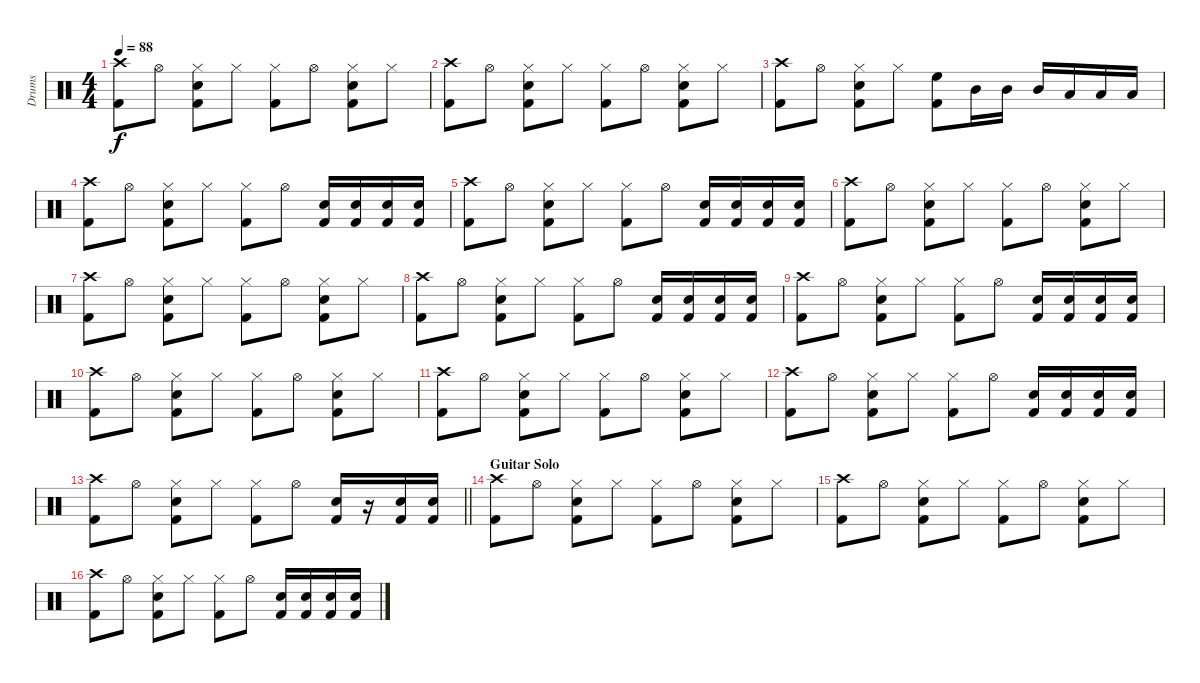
\track ("Drums" "Drums") {instrument percussion}
\staff {score}
\articulation defaults
\ts (4 4)
\tempo 88
\clef neutral
\ks c
("Crash high (hit)" "Kick (hit) 2").8{dy f} "Hi-Hat (open)".8 ("Hi-Hat (closed)" "Snare (hit) 2" "Kick (hit) 2").8 "Hi-Hat (closed)".8 ("Hi-Hat (closed)" "Kick (hit) 2").8 "Hi-Hat (open)".8 ("Hi-Hat (closed)" "Snare (hit) 2" "Kick (hit) 2").8 "Hi-Hat (closed)".8 |
("Crash high (hit)" "Kick (hit) 2").8 "Hi-Hat (open)".8 ("Hi-Hat (closed)" "Snare (hit) 2" "Kick (hit) 2").8 "Hi-Hat (closed)".8 ("Hi-Hat (closed)" "Kick (hit) 2").8 "Hi-Hat (open)".8 ("Hi-Hat (closed)" "Snare (hit) 2" "Kick (hit) 2").8 "Hi-Hat (closed)".8 |
("Crash high (hit)" "Kick (hit) 2").8 "Hi-Hat (open)".8 ("Hi-Hat (closed)" "Snare (hit) 2" "Kick (hit) 2").8 "Hi-Hat (closed)".8 ("High Floor Tom (hit)" "Kick (hit) 2").8 "Mid Tom (hit)".16 "Mid Tom (hit)".16 "Mid Tom (hit)".16 "Low Tom (hit)".16 "Low Tom (hit)".16 "Low Tom (hit)".16 |
("Crash high (hit)" "Kick (hit) 2").8 "Hi-Hat (open)".8 ("Hi-Hat (closed)" "Snare (hit) 2" "Kick (hit) 2").8 "Hi-Hat (closed)".8 ("Hi-Hat (closed)" "Kick (hit) 2").8 "Hi-Hat (open)".8 ("Snare (hit) 2" "Kick (hit) 2").16 ("Snare (hit) 2" "Kick (hit) 2").16 ("Snare (hit) 2" "Kick (hit) 2").16 ("Snare (hit) 2" "Kick (hit) 2").16 |
("Crash high (hit)" "Kick (hit) 2").8 "Hi-Hat (open)".8 ("Hi-Hat (closed)" "Snare (hit) 2" "Kick (hit) 2").8 "Hi-Hat (closed)".8 ("Hi-Hat (closed)" "Kick (hit) 2").8 "Hi-Hat (open)".8 ("Snare (hit) 2" "Kick (hit) 2").16 ("Snare (hit) 2" "Kick (hit) 2").16 ("Snare (hit) 2" "Kick (hit) 2").16 ("Snare (hit) 2" "Kick (hit) 2").16 |
("Crash high (hit)" "Kick (hit) 2").8 "Hi-Hat (open)".8 ("Hi-Hat (closed)" "Snare (hit) 2" "Kick (hit) 2").8 "Hi-Hat (closed)".8 ("Hi-Hat (closed)" "Kick (hit) 2").8 "Hi-Hat (open)".8 ("Hi-Hat (closed)" "Snare (hit) 2" "Kick (hit) 2").8 "Hi-Hat (closed)".8 |
("Crash high (hit)" "Kick (hit) 2").8 "Hi-Hat (open)".8 ("Hi-Hat (closed)" "Snare (hit) 2" "Kick (hit) 2").8 "Hi-Hat (closed)".8 ("Hi-Hat (closed)" "Kick (hit) 2").8 "Hi-Hat (open)".8 ("Hi-Hat (closed)" "Snare (hit) 2" "Kick (hit) 2").8 "Hi-Hat (closed)".8 |
("Crash high (hit)" "Kick (hit) 2").8 "Hi-Hat (open)".8 ("Hi-Hat (closed)" "Snare (hit) 2" "Kick (hit) 2").8 "Hi-Hat (closed)".8 ("Hi-Hat (closed)" "Kick (hit) 2").8 "Hi-Hat (open)".8 ("Snare (hit) 2" "Kick (hit) 2").16 ("Snare (hit) 2" "Kick (hit) 2").16 ("Snare (hit) 2" "Kick (hit) 2").16 ("Snare (hit) 2" "Kick (hit) 2").16 |
("Crash high (hit)" "Kick (hit) 2").8 "Hi-Hat (open)".8 ("Hi-Hat (closed)" "Snare (hit) 2" "Kick (hit) 2").8 "Hi-Hat (closed)".8 ("Hi-Hat (closed)" "Kick (hit) 2").8 "Hi-Hat (open)".8 ("Snare (hit) 2" "Kick (hit) 2").16 ("Snare (hit) 2" "Kick (hit) 2").16 ("Snare (hit) 2" "Kick (hit) 2").16 ("Snare (hit) 2" "Kick (hit) 2").16 |
("Crash high (hit)" "Kick (hit) 2").8 "Hi-Hat (open)".8 ("Hi-Hat (closed)" "Snare (hit) 2" "Kick (hit) 2").8 "Hi-Hat (closed)".8 ("Hi-Hat (closed)" "Kick (hit) 2").8 "Hi-Hat (open)".8 ("Hi-Hat (closed)" "Snare (hit) 2" "Kick (hit) 2").8 "Hi-Hat (closed)".8 |
("Crash high (hit)" "Kick (hit) 2").8 "Hi-Hat (open)".8 ("Hi-Hat (closed)" "Snare (hit) 2" "Kick (hit) 2").8 "Hi-Hat (closed)".8 ("Hi-Hat (closed)" "Kick (hit) 2").8 "Hi-Hat (open)".8 ("Hi-Hat (closed)" "Snare (hit) 2" "Kick (hit) 2").8 "Hi-Hat (closed)".8 |
("Crash high (hit)" "Kick (hit) 2").8 "Hi-Hat (open)".8 ("Hi-Hat (closed)" "Snare (hit) 2" "Kick (hit) 2").8 "Hi-Hat (closed)".8 ("Hi-Hat (closed)" "Kick (hit) 2").8 "Hi-Hat (open)".8 ("Snare (hit) 2" "Kick (hit) 2").16 ("Snare (hit) 2" "Kick (hit) 2").16 ("Snare (hit) 2" "Kick (hit) 2").16 ("Snare (hit) 2" "Kick (hit) 2").16 |
\barLineRight lightlight
("Crash high (hit)" "Kick (hit) 2").8 "Hi-Hat (open)".8 ("Hi-Hat (closed)" "Snare (hit) 2" "Kick (hit) 2").8 "Hi-Hat (closed)".8 ("Hi-Hat (closed)" "Kick (hit) 2").8 "Hi-Hat (open)".8 ("Snare (hit) 2" "Kick (hit) 2").16 r.16 ("Snare (hit) 2" "Kick (hit) 2").16 ("Snare (hit) 2" "Kick (hit) 2").16 |
\section ("" "Guitar Solo")
("Crash high (hit)" "Kick (hit) 2").8 "Hi-Hat (open)".8 ("Hi-Hat (closed)" "Snare (hit) 2" "Kick (hit) 2").8 "Hi-Hat (closed)".8 ("Hi-Hat (closed)" "Kick (hit) 2").8 "Hi-Hat (open)".8 ("Hi-Hat (closed)" "Snare (hit) 2" "Kick (hit) 2").8 "Hi-Hat (closed)".8 |
("Crash high (hit)" "Kick (hit) 2").8 "Hi-Hat (open)".8 ("Hi-Hat (closed)" "Snare (hit) 2" "Kick (hit) 2").8 "Hi-Hat (closed)".8 ("Hi-Hat (closed)" "Kick (hit) 2").8 "Hi-Hat (open)".8 ("Hi-Hat (closed)" "Snare (hit) 2" "Kick (hit) 2").8 "Hi-Hat (closed)".8 |
("Crash high (hit)" "Kick (hit) 2").8 "Hi-Hat (open)".8 ("Hi-Hat (closed)" "Snare (hit) 2" "Kick (hit) 2").8 "Hi-Hat (closed)".8 ("Hi-Hat (closed)" "Kick (hit) 2").8 "Hi-Hat (open)".8 ("Snare (hit) 2" "Kick (hit) 2").16 ("Snare (hit) 2" "Kick (hit) 2").16 ("Snare (hit) 2" "Kick (hit) 2").16 ("Snare (hit) 2" "Kick (hit) 2").16
